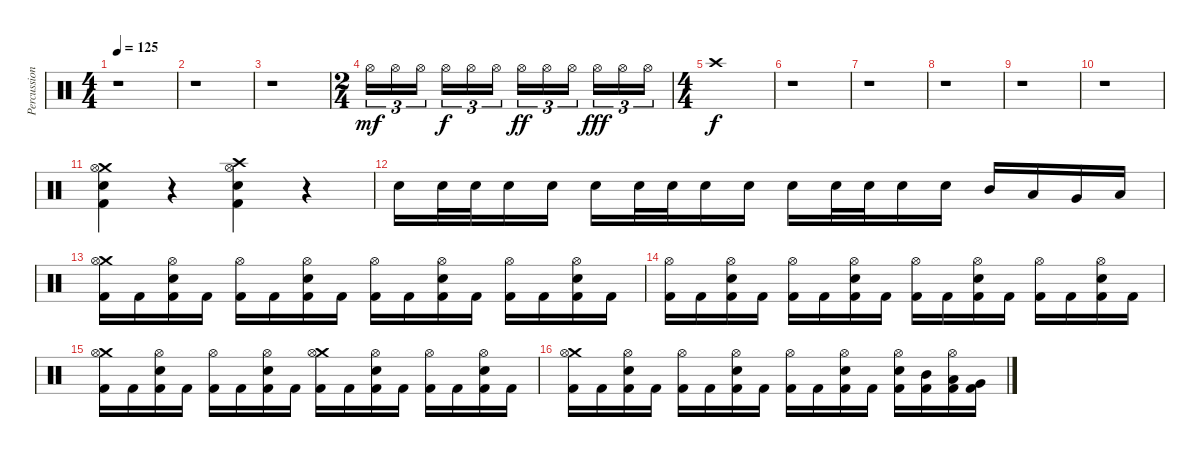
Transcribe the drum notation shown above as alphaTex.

\track ("Percussion" "Percussion") {instrument percussion}
\staff {score}
\articulation defaults
\ts (4 4)
\tempo 125
\clef neutral
\ks c
r.1{dy f} |
r.1 |
r.1 |
\ts (2 4)
"Hi-Hat (open)".16{tu (3 2) dy mf} "Hi-Hat (open)".16{tu (3 2)} "Hi-Hat (open)".16{tu (3 2)} "Hi-Hat (open)".16{tu (3 2) dy f} "Hi-Hat (open)".16{tu (3 2)} "Hi-Hat (open)".16{tu (3 2)} "Hi-Hat (open)".16{tu (3 2) dy ff} "Hi-Hat (open)".16{tu (3 2)} "Hi-Hat (open)".16{tu (3 2)} "Hi-Hat (open)".16{tu (3 2) dy fff} "Hi-Hat (open)".16{tu (3 2)} "Hi-Hat (open)".16{tu (3 2)} |
\ts (4 4)
"Crash high (hit)".1{dy f} |
r.1 |
r.1 |
r.1 |
r.1 |
r.1 |
("Crash medium (hit)" "Hi-Hat (open)" "Electric Snare (hit)" "Kick (hit) 2").4 r.4 ("Crash high (hit)" "Hi-Hat (open)" "Electric Snare (hit)" "Kick (hit) 2").4 r.4 |
"Electric Snare (hit)".16 "Electric Snare (hit)".32 "Electric Snare (hit)".32 "Electric Snare (hit)".16 "Electric Snare (hit)".16 "Electric Snare (hit)".16 "Electric Snare (hit)".32 "Electric Snare (hit)".32 "Electric Snare (hit)".16 "Electric Snare (hit)".16 "Electric Snare (hit)".16 "Electric Snare (hit)".32 "Electric Snare (hit)".32 "Electric Snare (hit)".16 "Electric Snare (hit)".16 "Mid Tom (hit)".16 "Low Tom (hit)".16 "Very Low Tom (hit)".16 "Low Floor Tom (hit)".16 |
("Crash medium (hit)" "Hi-Hat (open)" "Kick (hit) 2").16 "Kick (hit) 2".16 ("Hi-Hat (open)" "Electric Snare (hit)" "Kick (hit) 2").16 "Kick (hit) 2".16 ("Hi-Hat (open)" "Kick (hit) 2").16 "Kick (hit) 2".16 ("Hi-Hat (open)" "Electric Snare (hit)" "Kick (hit) 2").16 "Kick (hit) 2".16 ("Hi-Hat (open)" "Kick (hit) 2").16 "Kick (hit) 2".16 ("Hi-Hat (open)" "Electric Snare (hit)" "Kick (hit) 2").16 "Kick (hit) 2".16 ("Hi-Hat (open)" "Kick (hit) 2").16 "Kick (hit) 2".16 ("Hi-Hat (open)" "Electric Snare (hit)" "Kick (hit) 2").16 "Kick (hit) 2".16 |
("Hi-Hat (open)" "Kick (hit) 2").16 "Kick (hit) 2".16 ("Hi-Hat (open)" "Electric Snare (hit)" "Kick (hit) 2").16 "Kick (hit) 2".16 ("Hi-Hat (open)" "Kick (hit) 2").16 "Kick (hit) 2".16 ("Hi-Hat (open)" "Electric Snare (hit)" "Kick (hit) 2").16 "Kick (hit) 2".16 ("Hi-Hat (open)" "Kick (hit) 2").16 "Kick (hit) 2".16 ("Hi-Hat (open)" "Electric Snare (hit)" "Kick (hit) 2").16 "Kick (hit) 2".16 ("Hi-Hat (open)" "Kick (hit) 2").16 "Kick (hit) 2".16 ("Hi-Hat (open)" "Electric Snare (hit)" "Kick (hit) 2").16 "Kick (hit) 2".16 |
("Crash medium (hit)" "Hi-Hat (open)" "Kick (hit) 2").16 "Kick (hit) 2".16 ("Hi-Hat (open)" "Electric Snare (hit)" "Kick (hit) 2").16 "Kick (hit) 2".16 ("Hi-Hat (open)" "Kick (hit) 2").16 "Kick (hit) 2".16 ("Hi-Hat (open)" "Electric Snare (hit)" "Kick (hit) 2").16 "Kick (hit) 2".16 ("Crash medium (hit)" "Hi-Hat (open)" "Kick (hit) 2").16 "Kick (hit) 2".16 ("Hi-Hat (open)" "Electric Snare (hit)" "Kick (hit) 2").16 "Kick (hit) 2".16 ("Hi-Hat (open)" "Kick (hit) 2").16 "Kick (hit) 2".16 ("Hi-Hat (open)" "Electric Snare (hit)" "Kick (hit) 2").16 "Kick (hit) 2".16 |
("Crash medium (hit)" "Hi-Hat (open)" "Kick (hit) 2").16 "Kick (hit) 2".16 ("Hi-Hat (open)" "Electric Snare (hit)" "Kick (hit) 2").16 "Kick (hit) 2".16 ("Hi-Hat (open)" "Kick (hit) 2").16 "Kick (hit) 2".16 ("Hi-Hat (open)" "Electric Snare (hit)" "Kick (hit) 2").16 "Kick (hit) 2".16 ("Hi-Hat (open)" "Kick (hit) 2").16 "Kick (hit) 2".16 ("Hi-Hat (open)" "Electric Snare (hit)" "Kick (hit) 2").16 "Kick (hit) 2".16 ("Hi-Hat (open)" "Electric Snare (hit)" "Kick (hit) 2").16 ("Mid Tom (hit)" "Kick (hit) 2").16 ("Hi-Hat (open)" "Low Tom (hit)" "Kick (hit) 2").16 ("Very Low Tom (hit)" "Kick (hit) 2").16
